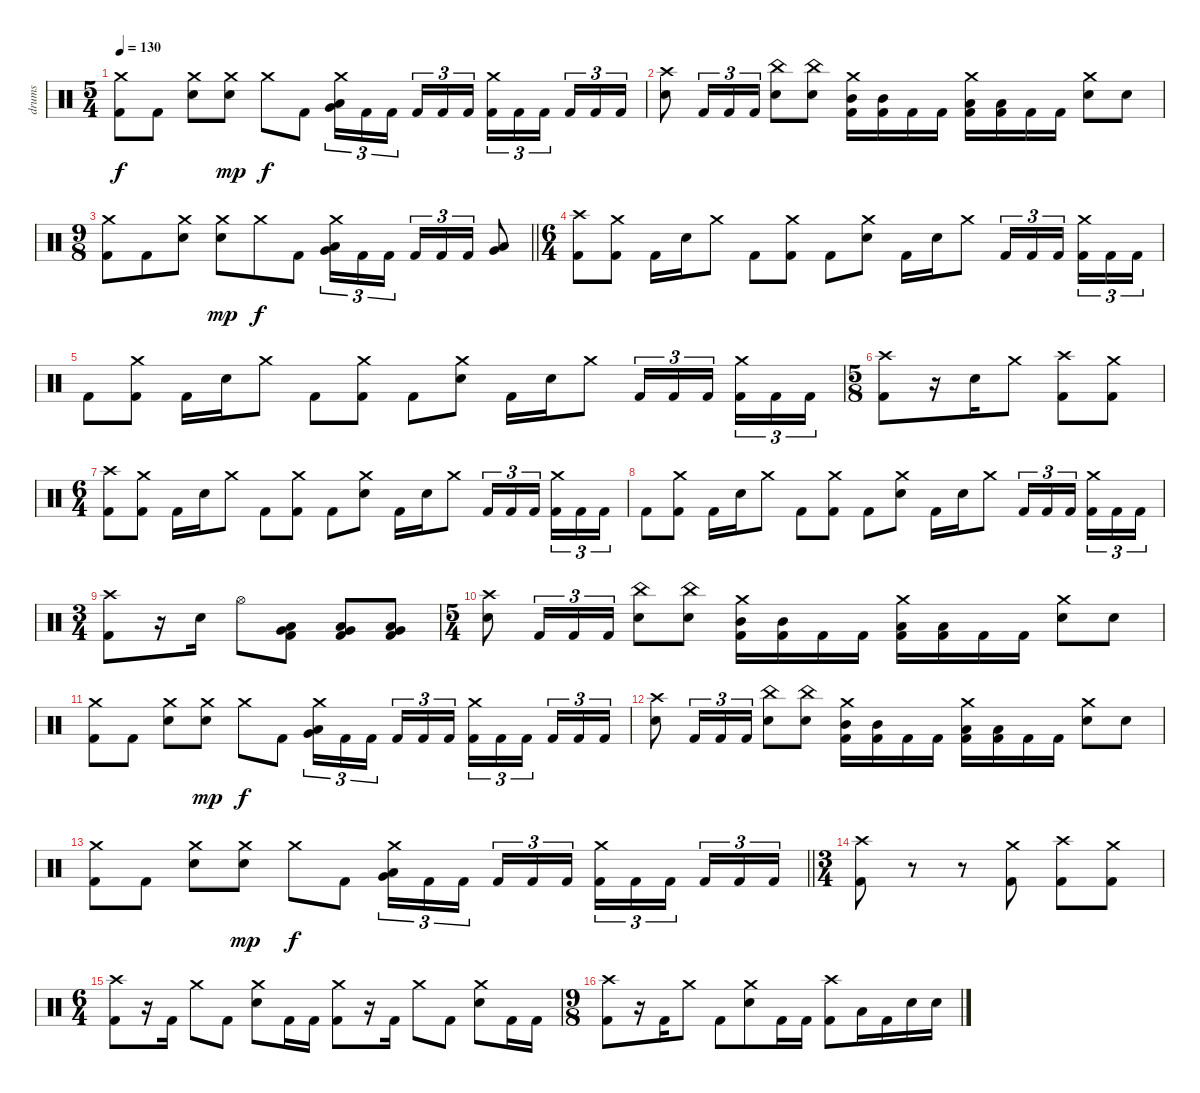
\track ("drums" "drums") {instrument percussion}
\staff {score}
\articulation defaults
\ts (5 4)
\tempo 130
\clef neutral
\ks c
("Crash medium (hit)" "Kick (hit) 2").8{dy f} "Kick (hit) 2".8 ("Crash medium (hit)" "Electric Snare (hit)").8 ("Crash medium (hit)" "Electric Snare (hit)").8{dy mp} "Crash medium (hit)".8{dy f} "Kick (hit) 2".8 ("Crash medium (hit)" "Low Floor Tom (hit)" "Very Low Tom (hit)").16{tu (3 2)} "Kick (hit) 2".16{tu (3 2)} "Kick (hit) 2".16{tu (3 2)} "Kick (hit) 2".16{tu (3 2)} "Kick (hit) 2".16{tu (3 2)} "Kick (hit) 2".16{tu (3 2)} ("Crash medium (hit)" "Kick (hit) 2").16{tu (3 2)} "Kick (hit) 2".16{tu (3 2)} "Kick (hit) 2".16{tu (3 2)} "Kick (hit) 2".16{tu (3 2)} "Kick (hit) 2".16{tu (3 2)} "Kick (hit) 2".16{tu (3 2)} |
("Crash high (hit)" "Electric Snare (hit)").8 "Kick (hit) 2".16{tu (3 2)} "Kick (hit) 2".16{tu (3 2)} "Kick (hit) 2".16{tu (3 2)} ("China (hit)" "Electric Snare (hit)").8 ("China (hit)" "Electric Snare (hit)").8 ("Crash medium (hit)" "Mid Tom (hit)" "Kick (hit) 2").16 ("Mid Tom (hit)" "Kick (hit) 2").16 "Kick (hit) 2".16 "Kick (hit) 2".16 ("Crash medium (hit)" "Low Tom (hit)" "Kick (hit) 2").16 ("Low Tom (hit)" "Kick (hit) 2").16 "Kick (hit) 2".16 "Kick (hit) 2".16 ("Crash medium (hit)" "Electric Snare (hit)").8 "Electric Snare (hit)".8 |
\ts (9 8)
\barLineRight lightlight
("Crash medium (hit)" "Kick (hit) 2").8 "Kick (hit) 2".8 ("Crash medium (hit)" "Electric Snare (hit)").8 ("Crash medium (hit)" "Electric Snare (hit)").8{dy mp} "Crash medium (hit)".8{dy f} "Kick (hit) 2".8 ("Crash medium (hit)" "Low Floor Tom (hit)" "Very Low Tom (hit)").16{tu (3 2)} "Kick (hit) 2".16{tu (3 2)} "Kick (hit) 2".16{tu (3 2)} "Kick (hit) 2".16{tu (3 2)} "Kick (hit) 2".16{tu (3 2)} "Kick (hit) 2".16{tu (3 2)} ("Very Low Tom (hit)" "Low Floor Tom (hit)").8 |
\ts (6 4)
\section ("" "")
("Crash high (hit)" "Kick (hit) 2").8 ("Crash medium (hit)" "Kick (hit) 2").8 "Kick (hit) 2".16 "Electric Snare (hit)".16 "Crash medium (hit)".8 "Kick (hit) 2".8 ("Crash medium (hit)" "Kick (hit) 2").8 "Kick (hit) 2".8 ("Crash medium (hit)" "Electric Snare (hit)").8 "Kick (hit) 2".16 "Electric Snare (hit)".16 "Crash medium (hit)".8 "Kick (hit) 2".16{tu (3 2)} "Kick (hit) 2".16{tu (3 2)} "Kick (hit) 2".16{tu (3 2)} ("Crash medium (hit)" "Kick (hit) 2").16{tu (3 2)} "Kick (hit) 2".16{tu (3 2)} "Kick (hit) 2".16{tu (3 2)} |
"Kick (hit) 2".8 ("Crash medium (hit)" "Kick (hit) 2").8 "Kick (hit) 2".16 "Electric Snare (hit)".16 "Crash medium (hit)".8 "Kick (hit) 2".8 ("Crash medium (hit)" "Kick (hit) 2").8 "Kick (hit) 2".8 ("Crash medium (hit)" "Electric Snare (hit)").8 "Kick (hit) 2".16 "Electric Snare (hit)".16 "Crash medium (hit)".8 "Kick (hit) 2".16{tu (3 2)} "Kick (hit) 2".16{tu (3 2)} "Kick (hit) 2".16{tu (3 2)} ("Crash medium (hit)" "Kick (hit) 2").16{tu (3 2)} "Kick (hit) 2".16{tu (3 2)} "Kick (hit) 2".16{tu (3 2)} |
\ts (5 8)
("Crash high (hit)" "Kick (hit) 2").8 r.16 "Electric Snare (hit)".16 "Crash medium (hit)".8 ("Crash high (hit)" "Kick (hit) 2").8 ("Crash medium (hit)" "Kick (hit) 2").8 |
\ts (6 4)
("Crash high (hit)" "Kick (hit) 2").8 ("Crash medium (hit)" "Kick (hit) 2").8 "Kick (hit) 2".16 "Electric Snare (hit)".16 "Crash medium (hit)".8 "Kick (hit) 2".8 ("Crash medium (hit)" "Kick (hit) 2").8 "Kick (hit) 2".8 ("Crash medium (hit)" "Electric Snare (hit)").8 "Kick (hit) 2".16 "Electric Snare (hit)".16 "Crash medium (hit)".8 "Kick (hit) 2".16{tu (3 2)} "Kick (hit) 2".16{tu (3 2)} "Kick (hit) 2".16{tu (3 2)} ("Crash medium (hit)" "Kick (hit) 2").16{tu (3 2)} "Kick (hit) 2".16{tu (3 2)} "Kick (hit) 2".16{tu (3 2)} |
"Kick (hit) 2".8 ("Crash medium (hit)" "Kick (hit) 2").8 "Kick (hit) 2".16 "Electric Snare (hit)".16 "Crash medium (hit)".8 "Kick (hit) 2".8 ("Crash medium (hit)" "Kick (hit) 2").8 "Kick (hit) 2".8 ("Crash medium (hit)" "Electric Snare (hit)").8 "Kick (hit) 2".16 "Electric Snare (hit)".16 "Crash medium (hit)".8 "Kick (hit) 2".16{tu (3 2)} "Kick (hit) 2".16{tu (3 2)} "Kick (hit) 2".16{tu (3 2)} ("Crash medium (hit)" "Kick (hit) 2").16{tu (3 2)} "Kick (hit) 2".16{tu (3 2)} "Kick (hit) 2".16{tu (3 2)} |
\ts (3 4)
("Crash high (hit)" "Kick (hit) 2").8 r.16 "Electric Snare (hit)".16 "Hi-Hat (open)".8 ("Very Low Tom (hit)" "Low Floor Tom (hit)" "Kick (hit) 2").8 ("Very Low Tom (hit)" "Low Floor Tom (hit)" "Kick (hit) 2").8 ("Very Low Tom (hit)" "Low Floor Tom (hit)" "Kick (hit) 2").8 |
\ts (5 4)
\section ("" "")
("Crash high (hit)" "Electric Snare (hit)").8 "Kick (hit) 2".16{tu (3 2)} "Kick (hit) 2".16{tu (3 2)} "Kick (hit) 2".16{tu (3 2)} ("China (hit)" "Electric Snare (hit)").8 ("China (hit)" "Electric Snare (hit)").8 ("Crash medium (hit)" "Mid Tom (hit)" "Kick (hit) 2").16 ("Mid Tom (hit)" "Kick (hit) 2").16 "Kick (hit) 2".16 "Kick (hit) 2".16 ("Crash medium (hit)" "Low Tom (hit)" "Kick (hit) 2").16 ("Low Tom (hit)" "Kick (hit) 2").16 "Kick (hit) 2".16 "Kick (hit) 2".16 ("Crash medium (hit)" "Electric Snare (hit)").8 "Electric Snare (hit)".8 |
("Crash medium (hit)" "Kick (hit) 2").8 "Kick (hit) 2".8 ("Crash medium (hit)" "Electric Snare (hit)").8 ("Crash medium (hit)" "Electric Snare (hit)").8{dy mp} "Crash medium (hit)".8{dy f} "Kick (hit) 2".8 ("Crash medium (hit)" "Low Floor Tom (hit)" "Very Low Tom (hit)").16{tu (3 2)} "Kick (hit) 2".16{tu (3 2)} "Kick (hit) 2".16{tu (3 2)} "Kick (hit) 2".16{tu (3 2)} "Kick (hit) 2".16{tu (3 2)} "Kick (hit) 2".16{tu (3 2)} ("Crash medium (hit)" "Kick (hit) 2").16{tu (3 2)} "Kick (hit) 2".16{tu (3 2)} "Kick (hit) 2".16{tu (3 2)} "Kick (hit) 2".16{tu (3 2)} "Kick (hit) 2".16{tu (3 2)} "Kick (hit) 2".16{tu (3 2)} |
("Crash high (hit)" "Electric Snare (hit)").8 "Kick (hit) 2".16{tu (3 2)} "Kick (hit) 2".16{tu (3 2)} "Kick (hit) 2".16{tu (3 2)} ("China (hit)" "Electric Snare (hit)").8 ("China (hit)" "Electric Snare (hit)").8 ("Crash medium (hit)" "Mid Tom (hit)" "Kick (hit) 2").16 ("Mid Tom (hit)" "Kick (hit) 2").16 "Kick (hit) 2".16 "Kick (hit) 2".16 ("Crash medium (hit)" "Low Tom (hit)" "Kick (hit) 2").16 ("Low Tom (hit)" "Kick (hit) 2").16 "Kick (hit) 2".16 "Kick (hit) 2".16 ("Crash medium (hit)" "Electric Snare (hit)").8 "Electric Snare (hit)".8 |
\barLineRight lightlight
("Crash medium (hit)" "Kick (hit) 2").8 "Kick (hit) 2".8 ("Crash medium (hit)" "Electric Snare (hit)").8 ("Crash medium (hit)" "Electric Snare (hit)").8{dy mp} "Crash medium (hit)".8{dy f} "Kick (hit) 2".8 ("Crash medium (hit)" "Low Floor Tom (hit)" "Very Low Tom (hit)").16{tu (3 2)} "Kick (hit) 2".16{tu (3 2)} "Kick (hit) 2".16{tu (3 2)} "Kick (hit) 2".16{tu (3 2)} "Kick (hit) 2".16{tu (3 2)} "Kick (hit) 2".16{tu (3 2)} ("Crash medium (hit)" "Kick (hit) 2").16{tu (3 2)} "Kick (hit) 2".16{tu (3 2)} "Kick (hit) 2".16{tu (3 2)} "Kick (hit) 2".16{tu (3 2)} "Kick (hit) 2".16{tu (3 2)} "Kick (hit) 2".16{tu (3 2)} |
\ts (3 4)
\section ("" "")
("Crash high (hit)" "Kick (hit) 2").8 r.8 r.8 ("Crash medium (hit)" "Kick (hit) 2").8 ("Crash high (hit)" "Kick (hit) 2").8 ("Crash medium (hit)" "Kick (hit) 2").8 |
\ts (6 4)
("Crash high (hit)" "Kick (hit) 2").8 r.16 "Kick (hit) 2".16 "Crash medium (hit)".8 "Kick (hit) 2".8 ("Crash medium (hit)" "Electric Snare (hit)").8 "Kick (hit) 2".16 "Kick (hit) 2".16 ("Crash medium (hit)" "Kick (hit) 2").8 r.16 "Kick (hit) 2".16 "Crash medium (hit)".8 "Kick (hit) 2".8 ("Crash medium (hit)" "Electric Snare (hit)").8 "Kick (hit) 2".16 "Kick (hit) 2".16 |
\ts (9 8)
("Crash high (hit)" "Kick (hit) 2").8 r.16 "Kick (hit) 2".16 "Crash medium (hit)".8 "Kick (hit) 2".8 ("Crash medium (hit)" "Electric Snare (hit)").8 "Kick (hit) 2".16 "Kick (hit) 2".16 ("Crash high (hit)" "Kick (hit) 2").8 "Low Floor Tom (hit)".16 "Kick (hit) 2".16 "Electric Snare (hit)".16 "Electric Snare (hit)".16
